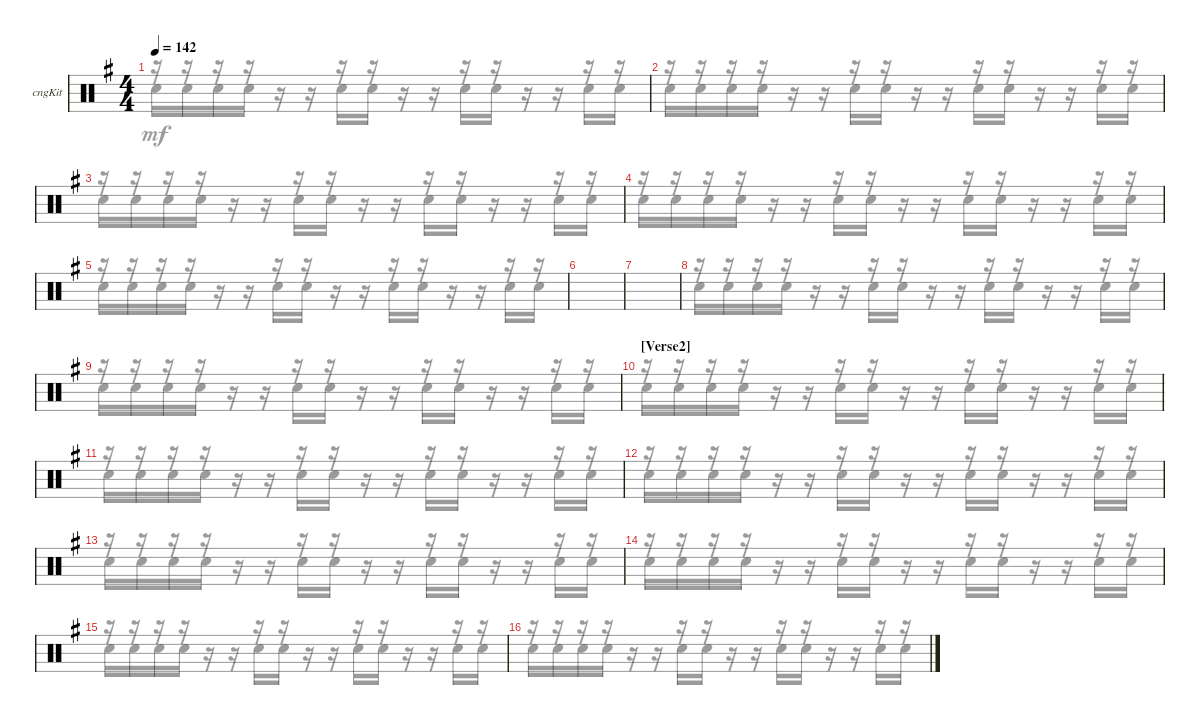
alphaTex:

\bracketExtendMode groupsimilarinstruments
\firstSystemTrackNameOrientation horizontal
\otherSystemsTrackNameOrientation horizontal
\track ("Congas" "cngKit") {instrument percussion}
\staff {score}
\articulation defaults
\voice
\ts (4 4)
\tempo 142
\clef neutral
\ks eminor
|
|
|
|
|
|
|
|
|
\section ("" "[Verse2]")
|
|
|
|
|
|
\voice
\clef neutral
\ks eminor
r.16{dy mf} r.16 r.16 r.16 r.16 r.16 r.16 r.16 r.16 r.16 r.16 r.16 r.16 r.16 r.16 r.16 |
r.16 r.16 r.16 r.16 r.16 r.16 r.16 r.16 r.16 r.16 r.16 r.16 r.16 r.16 r.16 r.16 |
r.16 r.16 r.16 r.16 r.16 r.16 r.16 r.16 r.16 r.16 r.16 r.16 r.16 r.16 r.16 r.16 |
r.16 r.16 r.16 r.16 r.16 r.16 r.16 r.16 r.16 r.16 r.16 r.16 r.16 r.16 r.16 r.16 |
r.16 r.16 r.16 r.16 r.16 r.16 r.16 r.16 r.16 r.16 r.16 r.16 r.16 r.16 r.16 r.16 |
|
|
r.16 r.16 r.16 r.16 r.16 r.16 r.16 r.16 r.16 r.16 r.16 r.16 r.16 r.16 r.16 r.16 |
r.16 r.16 r.16 r.16 r.16 r.16 r.16 r.16 r.16 r.16 r.16 r.16 r.16 r.16 r.16 r.16 |
r.16 r.16 r.16 r.16 r.16 r.16 r.16 r.16 r.16 r.16 r.16 r.16 r.16 r.16 r.16 r.16 |
r.16 r.16 r.16 r.16 r.16 r.16 r.16 r.16 r.16 r.16 r.16 r.16 r.16 r.16 r.16 r.16 |
r.16 r.16 r.16 r.16 r.16 r.16 r.16 r.16 r.16 r.16 r.16 r.16 r.16 r.16 r.16 r.16 |
r.16 r.16 r.16 r.16 r.16 r.16 r.16 r.16 r.16 r.16 r.16 r.16 r.16 r.16 r.16 r.16 |
r.16 r.16 r.16 r.16 r.16 r.16 r.16 r.16 r.16 r.16 r.16 r.16 r.16 r.16 r.16 r.16 |
r.16 r.16 r.16 r.16 r.16 r.16 r.16 r.16 r.16 r.16 r.16 r.16 r.16 r.16 r.16 r.16 |
r.16 r.16 r.16 r.16 r.16 r.16 r.16 r.16 r.16 r.16 r.16 r.16 r.16 r.16 r.16 r.16
\voice
\clef neutral
\ottava regular
\simile none
\ks eminor "Snare (hit) 2".16{dy mf} "Snare (hit) 2".16 "Snare (hit) 2".16 "Snare (hit) 2".16
r.16 r.16 "Snare (hit) 2".16 "Snare (hit) 2".16 r.16 r.16 "Snare (hit) 2".16 "Snare (hit) 2".16 r.16 r.16 "Snare (hit) 2".16 "Snare (hit) 2".16 |
"Snare (hit) 2".16 "Snare (hit) 2".16 "Snare (hit) 2".16 "Snare (hit) 2".16 r.16 r.16 "Snare (hit) 2".16 "Snare (hit) 2".16 r.16 r.16 "Snare (hit) 2".16 "Snare (hit) 2".16 r.16 r.16 "Snare (hit) 2".16 "Snare (hit) 2".16 |
"Snare (hit) 2".16 "Snare (hit) 2".16 "Snare (hit) 2".16 "Snare (hit) 2".16 r.16 r.16 "Snare (hit) 2".16 "Snare (hit) 2".16 r.16 r.16 "Snare (hit) 2".16 "Snare (hit) 2".16 r.16 r.16 "Snare (hit) 2".16 "Snare (hit) 2".16 |
"Snare (hit) 2".16 "Snare (hit) 2".16 "Snare (hit) 2".16 "Snare (hit) 2".16 r.16 r.16 "Snare (hit) 2".16 "Snare (hit) 2".16 r.16 r.16 "Snare (hit) 2".16 "Snare (hit) 2".16 r.16 r.16 "Snare (hit) 2".16 "Snare (hit) 2".16 |
"Snare (hit) 2".16 "Snare (hit) 2".16 "Snare (hit) 2".16 "Snare (hit) 2".16 r.16 r.16 "Snare (hit) 2".16 "Snare (hit) 2".16 r.16 r.16 "Snare (hit) 2".16 "Snare (hit) 2".16 r.16 r.16 "Snare (hit) 2".16 "Snare (hit) 2".16 |
|
|
"Snare (hit) 2".16 "Snare (hit) 2".16 "Snare (hit) 2".16 "Snare (hit) 2".16 r.16 r.16 "Snare (hit) 2".16 "Snare (hit) 2".16 r.16 r.16 "Snare (hit) 2".16 "Snare (hit) 2".16 r.16 r.16 "Snare (hit) 2".16 "Snare (hit) 2".16 |
"Snare (hit) 2".16 "Snare (hit) 2".16 "Snare (hit) 2".16 "Snare (hit) 2".16 r.16 r.16 "Snare (hit) 2".16 "Snare (hit) 2".16 r.16 r.16 "Snare (hit) 2".16 "Snare (hit) 2".16 r.16 r.16 "Snare (hit) 2".16 "Snare (hit) 2".16 |
"Snare (hit) 2".16 "Snare (hit) 2".16 "Snare (hit) 2".16 "Snare (hit) 2".16 r.16 r.16 "Snare (hit) 2".16 "Snare (hit) 2".16 r.16 r.16 "Snare (hit) 2".16 "Snare (hit) 2".16 r.16 r.16 "Snare (hit) 2".16 "Snare (hit) 2".16 |
"Snare (hit) 2".16 "Snare (hit) 2".16 "Snare (hit) 2".16 "Snare (hit) 2".16 r.16 r.16 "Snare (hit) 2".16 "Snare (hit) 2".16 r.16 r.16 "Snare (hit) 2".16 "Snare (hit) 2".16 r.16 r.16 "Snare (hit) 2".16 "Snare (hit) 2".16 |
"Snare (hit) 2".16 "Snare (hit) 2".16 "Snare (hit) 2".16 "Snare (hit) 2".16 r.16 r.16 "Snare (hit) 2".16 "Snare (hit) 2".16 r.16 r.16 "Snare (hit) 2".16 "Snare (hit) 2".16 r.16 r.16 "Snare (hit) 2".16 "Snare (hit) 2".16 |
"Snare (hit) 2".16 "Snare (hit) 2".16 "Snare (hit) 2".16 "Snare (hit) 2".16 r.16 r.16 "Snare (hit) 2".16 "Snare (hit) 2".16 r.16 r.16 "Snare (hit) 2".16 "Snare (hit) 2".16 r.16 r.16 "Snare (hit) 2".16 "Snare (hit) 2".16 |
"Snare (hit) 2".16 "Snare (hit) 2".16 "Snare (hit) 2".16 "Snare (hit) 2".16 r.16 r.16 "Snare (hit) 2".16 "Snare (hit) 2".16 r.16 r.16 "Snare (hit) 2".16 "Snare (hit) 2".16 r.16 r.16 "Snare (hit) 2".16 "Snare (hit) 2".16 |
"Snare (hit) 2".16 "Snare (hit) 2".16 "Snare (hit) 2".16 "Snare (hit) 2".16 r.16 r.16 "Snare (hit) 2".16 "Snare (hit) 2".16 r.16 r.16 "Snare (hit) 2".16 "Snare (hit) 2".16 r.16 r.16 "Snare (hit) 2".16 "Snare (hit) 2".16 |
"Snare (hit) 2".16 "Snare (hit) 2".16 "Snare (hit) 2".16 "Snare (hit) 2".16 r.16 r.16 "Snare (hit) 2".16 "Snare (hit) 2".16 r.16 r.16 "Snare (hit) 2".16 "Snare (hit) 2".16 r.16 r.16 "Snare (hit) 2".16 "Snare (hit) 2".16
